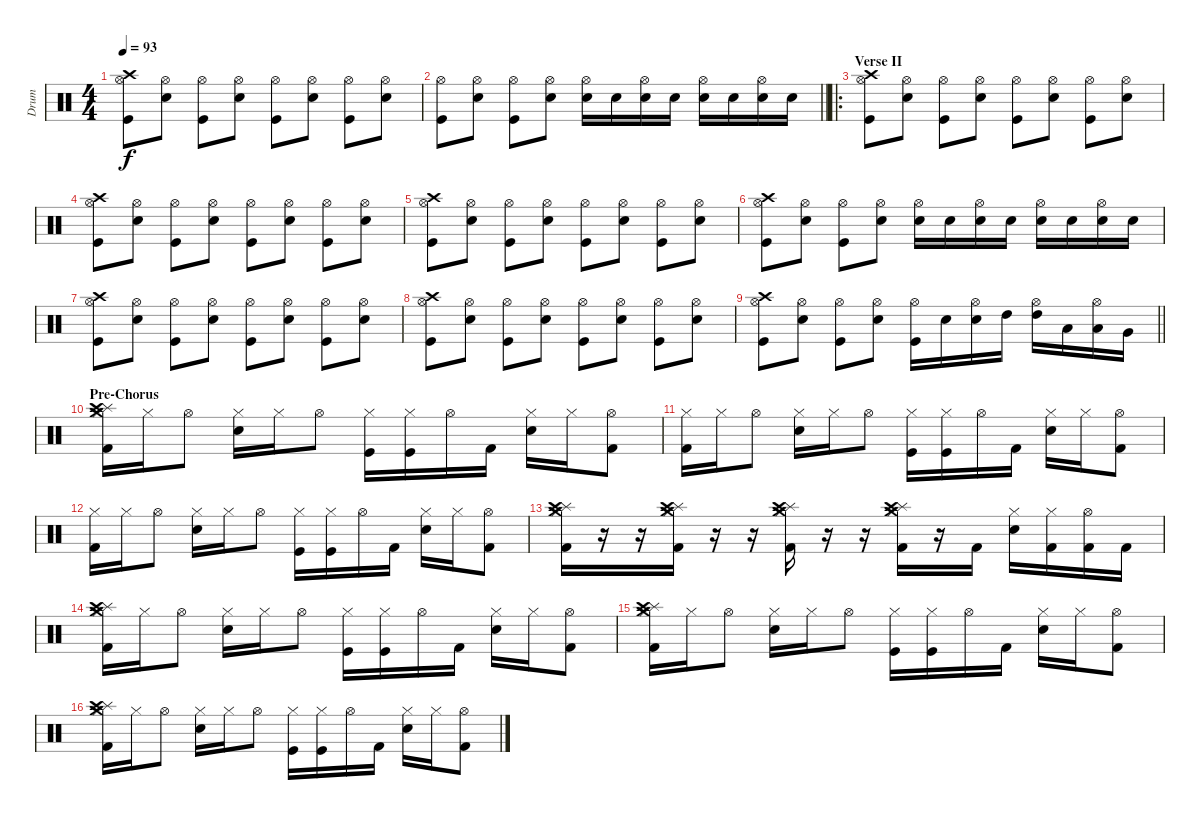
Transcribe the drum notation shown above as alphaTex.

\track ("Drum" "Drum") {instrument percussion}
\staff {score}
\articulation defaults
\ts (4 4)
\tempo 93
\clef neutral
\ks c
("Kick (hit)" "Hi-Hat (open)" "Crash high (hit)").8{dy f} ("Snare (hit) 2" "Hi-Hat (open)").8 ("Kick (hit)" "Hi-Hat (open)").8 ("Snare (hit) 2" "Hi-Hat (open)").8 ("Kick (hit)" "Hi-Hat (open)").8 ("Snare (hit) 2" "Hi-Hat (open)").8 ("Kick (hit)" "Hi-Hat (open)").8 ("Snare (hit) 2" "Hi-Hat (open)").8 |
\barLineRight lightlight
("Kick (hit)" "Hi-Hat (open)").8 ("Snare (hit) 2" "Hi-Hat (open)").8 ("Kick (hit)" "Hi-Hat (open)").8 ("Snare (hit) 2" "Hi-Hat (open)").8 ("Snare (hit) 2" "Hi-Hat (open)").16 "Snare (hit) 2".16 ("Snare (hit) 2" "Hi-Hat (open)").16 "Snare (hit) 2".16 ("Snare (hit) 2" "Hi-Hat (open)").16 "Snare (hit) 2".16 ("Snare (hit) 2" "Hi-Hat (open)").16 "Snare (hit) 2".16 |
\ro
\section ("" "Verse II")
("Kick (hit)" "Hi-Hat (open)" "Crash high (hit)").8 ("Snare (hit) 2" "Hi-Hat (open)").8 ("Kick (hit)" "Hi-Hat (open)").8 ("Snare (hit) 2" "Hi-Hat (open)").8 ("Kick (hit)" "Hi-Hat (open)").8 ("Snare (hit) 2" "Hi-Hat (open)").8 ("Kick (hit)" "Hi-Hat (open)").8 ("Snare (hit) 2" "Hi-Hat (open)").8 |
("Kick (hit)" "Hi-Hat (open)" "Crash high (hit)").8 ("Snare (hit) 2" "Hi-Hat (open)").8 ("Kick (hit)" "Hi-Hat (open)").8 ("Snare (hit) 2" "Hi-Hat (open)").8 ("Kick (hit)" "Hi-Hat (open)").8 ("Snare (hit) 2" "Hi-Hat (open)").8 ("Kick (hit)" "Hi-Hat (open)").8 ("Snare (hit) 2" "Hi-Hat (open)").8 |
("Kick (hit)" "Hi-Hat (open)" "Crash high (hit)").8 ("Snare (hit) 2" "Hi-Hat (open)").8 ("Kick (hit)" "Hi-Hat (open)").8 ("Snare (hit) 2" "Hi-Hat (open)").8 ("Kick (hit)" "Hi-Hat (open)").8 ("Snare (hit) 2" "Hi-Hat (open)").8 ("Kick (hit)" "Hi-Hat (open)").8 ("Snare (hit) 2" "Hi-Hat (open)").8 |
("Kick (hit)" "Hi-Hat (open)" "Crash high (hit)").8 ("Snare (hit) 2" "Hi-Hat (open)").8 ("Kick (hit)" "Hi-Hat (open)").8 ("Snare (hit) 2" "Hi-Hat (open)").8 ("Snare (hit) 2" "Hi-Hat (open)").16 "Snare (hit) 2".16 ("Snare (hit) 2" "Hi-Hat (open)").16 "Snare (hit) 2".16 ("Snare (hit) 2" "Hi-Hat (open)").16 "Snare (hit) 2".16 ("Snare (hit) 2" "Hi-Hat (open)").16 "Snare (hit) 2".16 |
("Kick (hit)" "Hi-Hat (open)" "Crash high (hit)").8 ("Snare (hit) 2" "Hi-Hat (open)").8 ("Kick (hit)" "Hi-Hat (open)").8 ("Snare (hit) 2" "Hi-Hat (open)").8 ("Kick (hit)" "Hi-Hat (open)").8 ("Snare (hit) 2" "Hi-Hat (open)").8 ("Kick (hit)" "Hi-Hat (open)").8 ("Snare (hit) 2" "Hi-Hat (open)").8 |
("Kick (hit)" "Hi-Hat (open)" "Crash high (hit)").8 ("Snare (hit) 2" "Hi-Hat (open)").8 ("Kick (hit)" "Hi-Hat (open)").8 ("Snare (hit) 2" "Hi-Hat (open)").8 ("Kick (hit)" "Hi-Hat (open)").8 ("Snare (hit) 2" "Hi-Hat (open)").8 ("Kick (hit)" "Hi-Hat (open)").8 ("Snare (hit) 2" "Hi-Hat (open)").8 |
\barLineRight lightlight
("Kick (hit)" "Hi-Hat (open)" "Crash high (hit)").8 ("Snare (hit) 2" "Hi-Hat (open)").8 ("Kick (hit)" "Hi-Hat (open)").8 ("Snare (hit) 2" "Hi-Hat (open)").8 ("Kick (hit)" "Hi-Hat (open)").16 "Snare (hit) 2".16 ("Hi-Hat (open)" "Snare (hit) 2").16 "High Tom (hit)".16 ("Hi-Hat (open)" "High Tom (hit)").16 "Low Tom (hit)".16 ("Hi-Hat (open)" "Low Tom (hit)").16 "Very Low Tom (hit)".16 |
\section ("" "Pre-Chorus")
("Hi-Hat (closed)" "Splash (hit)" "Kick (hit) 2" "Crash high (hit)" "Crash medium (hit)").16 "Hi-Hat (closed)".16 "Hi-Hat (open)".8 ("Hi-Hat (closed)" "Snare (hit) 2").16 "Hi-Hat (closed)".16 "Hi-Hat (open)".8 ("Hi-Hat (closed)" "Kick (hit)").16 ("Hi-Hat (closed)" "Kick (hit)").16 "Hi-Hat (open)".16 "Kick (hit) 2".16 ("Hi-Hat (closed)" "Snare (hit) 2").16 "Hi-Hat (closed)".16 ("Hi-Hat (open)" "Kick (hit) 2").8 |
("Hi-Hat (closed)" "Kick (hit) 2").16 "Hi-Hat (closed)".16 "Hi-Hat (open)".8 ("Hi-Hat (closed)" "Snare (hit) 2").16 "Hi-Hat (closed)".16 "Hi-Hat (open)".8 ("Hi-Hat (closed)" "Kick (hit)").16 ("Hi-Hat (closed)" "Kick (hit)").16 "Hi-Hat (open)".16 "Kick (hit) 2".16 ("Hi-Hat (closed)" "Snare (hit) 2").16 "Hi-Hat (closed)".16 ("Hi-Hat (open)" "Kick (hit) 2").8 |
("Hi-Hat (closed)" "Kick (hit) 2").16 "Hi-Hat (closed)".16 "Hi-Hat (open)".8 ("Hi-Hat (closed)" "Snare (hit) 2").16 "Hi-Hat (closed)".16 "Hi-Hat (open)".8 ("Hi-Hat (closed)" "Kick (hit)").16 ("Hi-Hat (closed)" "Kick (hit)").16 "Hi-Hat (open)".16 "Kick (hit) 2".16 ("Hi-Hat (closed)" "Snare (hit) 2").16 "Hi-Hat (closed)".16 ("Hi-Hat (open)" "Kick (hit) 2").8 |
("Hi-Hat (closed)" "Splash (hit)" "Kick (hit) 2" "Crash high (hit)" "Crash medium (hit)").16 r.16 r.16 ("Hi-Hat (closed)" "Splash (hit)" "Kick (hit) 2" "Crash high (hit)" "Crash medium (hit)").16 r.16 r.16 ("Hi-Hat (closed)" "Splash (hit)" "Kick (hit) 2" "Crash high (hit)" "Crash medium (hit)").16 r.16 r.16 ("Hi-Hat (closed)" "Splash (hit)" "Kick (hit) 2" "Crash high (hit)" "Crash medium (hit)").16 r.16 "Kick (hit) 2".16 ("Hi-Hat (closed)" "Snare (hit) 2").16 ("Hi-Hat (closed)" "Kick (hit) 2").16 ("Hi-Hat (open)" "Kick (hit) 2").16 "Kick (hit) 2".16 |
("Hi-Hat (closed)" "Splash (hit)" "Kick (hit) 2" "Crash high (hit)" "Crash medium (hit)").16 "Hi-Hat (closed)".16 "Hi-Hat (open)".8 ("Hi-Hat (closed)" "Snare (hit) 2").16 "Hi-Hat (closed)".16 "Hi-Hat (open)".8 ("Hi-Hat (closed)" "Kick (hit)").16 ("Hi-Hat (closed)" "Kick (hit)").16 "Hi-Hat (open)".16 "Kick (hit) 2".16 ("Hi-Hat (closed)" "Snare (hit) 2").16 "Hi-Hat (closed)".16 ("Hi-Hat (open)" "Kick (hit) 2").8 |
("Hi-Hat (closed)" "Splash (hit)" "Kick (hit) 2" "Crash high (hit)" "Crash medium (hit)").16 "Hi-Hat (closed)".16 "Hi-Hat (open)".8 ("Hi-Hat (closed)" "Snare (hit) 2").16 "Hi-Hat (closed)".16 "Hi-Hat (open)".8 ("Hi-Hat (closed)" "Kick (hit)").16 ("Hi-Hat (closed)" "Kick (hit)").16 "Hi-Hat (open)".16 "Kick (hit) 2".16 ("Hi-Hat (closed)" "Snare (hit) 2").16 "Hi-Hat (closed)".16 ("Hi-Hat (open)" "Kick (hit) 2").8 |
("Hi-Hat (closed)" "Splash (hit)" "Kick (hit) 2" "Crash high (hit)" "Crash medium (hit)").16 "Hi-Hat (closed)".16 "Hi-Hat (open)".8 ("Hi-Hat (closed)" "Snare (hit) 2").16 "Hi-Hat (closed)".16 "Hi-Hat (open)".8 ("Hi-Hat (closed)" "Kick (hit)").16 ("Hi-Hat (closed)" "Kick (hit)").16 "Hi-Hat (open)".16 "Kick (hit) 2".16 ("Hi-Hat (closed)" "Snare (hit) 2").16 "Hi-Hat (closed)".16 ("Hi-Hat (open)" "Kick (hit) 2").8
